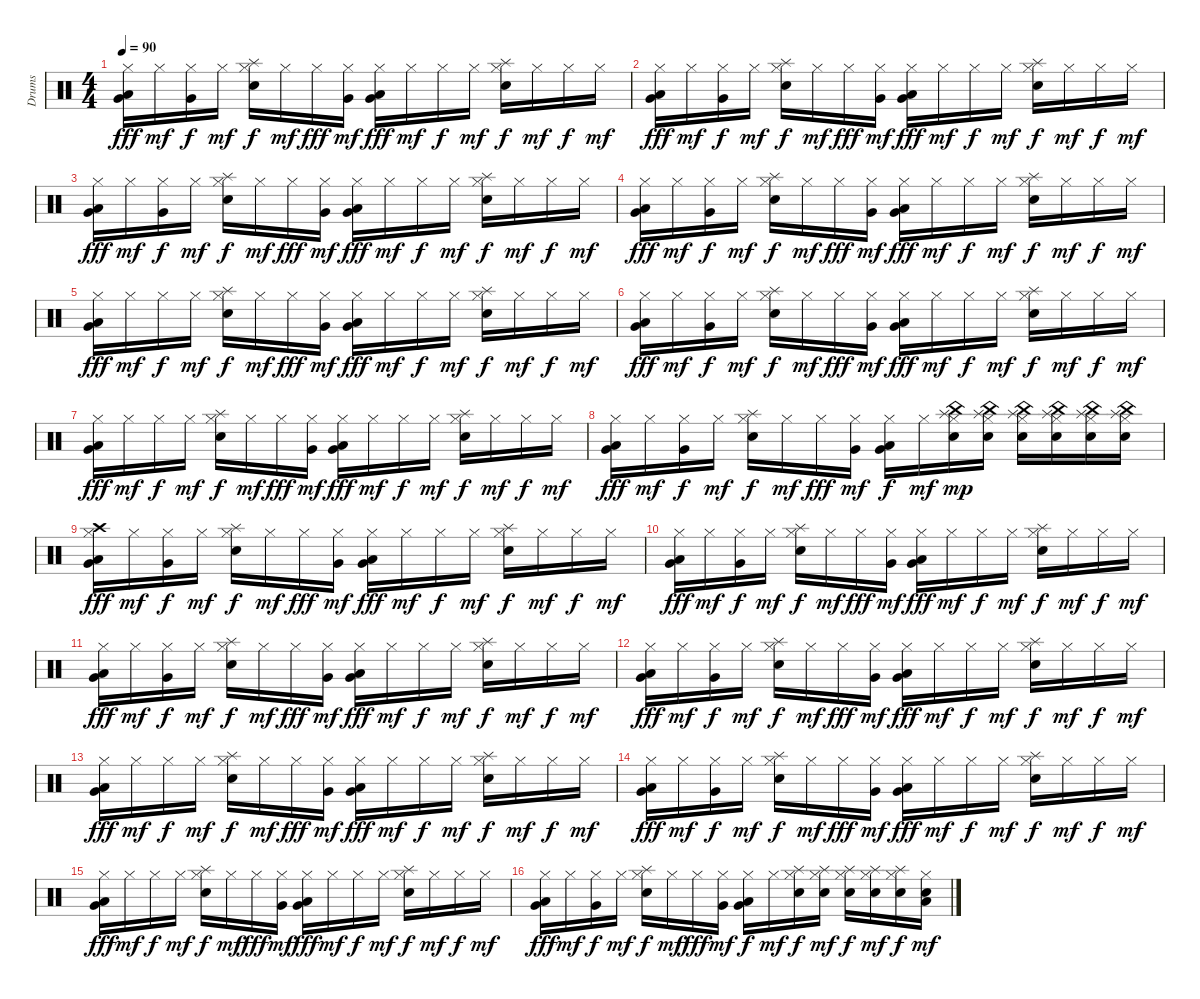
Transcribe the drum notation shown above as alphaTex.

\track ("Drums" "Drums") {instrument percussion}
\staff {score}
\articulation defaults
\ts (4 4)
\tempo 90
\clef neutral
\ks c
("Very Low Tom (hit)" "Low Floor Tom (hit)" "Hi-Hat (closed)").16{dy fff} "Hi-Hat (closed)".16{dy mf} ("Very Low Tom (hit)" "Hi-Hat (closed)").16{dy f} "Hi-Hat (closed)".16{dy mf} ("Electric Snare (hit)" "Splash (hit)" "Hi-Hat (closed)").16{dy f} "Hi-Hat (closed)".16{dy mf} "Hi-Hat (closed)".16{dy fff} ("Very Low Tom (hit)" "Hi-Hat (closed)").16{dy mf} ("Very Low Tom (hit)" "Low Floor Tom (hit)" "Hi-Hat (closed)").16{dy fff} "Hi-Hat (closed)".16{dy mf} "Hi-Hat (closed)".16{dy f} "Hi-Hat (closed)".16{dy mf} ("Electric Snare (hit)" "Splash (hit)" "Hi-Hat (closed)").16{dy f} "Hi-Hat (closed)".16{dy mf} "Hi-Hat (closed)".16{dy f} "Hi-Hat (closed)".16{dy mf} |
("Very Low Tom (hit)" "Low Floor Tom (hit)" "Hi-Hat (closed)").16{dy fff} "Hi-Hat (closed)".16{dy mf} ("Very Low Tom (hit)" "Hi-Hat (closed)").16{dy f} "Hi-Hat (closed)".16{dy mf} ("Electric Snare (hit)" "Splash (hit)" "Hi-Hat (closed)").16{dy f} "Hi-Hat (closed)".16{dy mf} "Hi-Hat (closed)".16{dy fff} ("Very Low Tom (hit)" "Hi-Hat (closed)").16{dy mf} ("Very Low Tom (hit)" "Low Floor Tom (hit)" "Hi-Hat (closed)").16{dy fff} "Hi-Hat (closed)".16{dy mf} "Hi-Hat (closed)".16{dy f} "Hi-Hat (closed)".16{dy mf} ("Electric Snare (hit)" "Splash (hit)" "Hi-Hat (closed)").16{dy f} "Hi-Hat (closed)".16{dy mf} "Hi-Hat (closed)".16{dy f} "Hi-Hat (closed)".16{dy mf} |
("Very Low Tom (hit)" "Low Floor Tom (hit)" "Hi-Hat (closed)").16{dy fff} "Hi-Hat (closed)".16{dy mf} ("Very Low Tom (hit)" "Hi-Hat (closed)").16{dy f} "Hi-Hat (closed)".16{dy mf} ("Electric Snare (hit)" "Splash (hit)" "Hi-Hat (closed)").16{dy f} "Hi-Hat (closed)".16{dy mf} "Hi-Hat (closed)".16{dy fff} ("Very Low Tom (hit)" "Hi-Hat (closed)").16{dy mf} ("Very Low Tom (hit)" "Low Floor Tom (hit)" "Hi-Hat (closed)").16{dy fff} "Hi-Hat (closed)".16{dy mf} "Hi-Hat (closed)".16{dy f} "Hi-Hat (closed)".16{dy mf} ("Electric Snare (hit)" "Splash (hit)" "Hi-Hat (closed)").16{dy f} "Hi-Hat (closed)".16{dy mf} "Hi-Hat (closed)".16{dy f} "Hi-Hat (closed)".16{dy mf} |
("Very Low Tom (hit)" "Low Floor Tom (hit)" "Hi-Hat (closed)").16{dy fff} "Hi-Hat (closed)".16{dy mf} ("Very Low Tom (hit)" "Hi-Hat (closed)").16{dy f} "Hi-Hat (closed)".16{dy mf} ("Electric Snare (hit)" "Splash (hit)" "Hi-Hat (closed)").16{dy f} "Hi-Hat (closed)".16{dy mf} "Hi-Hat (closed)".16{dy fff} ("Very Low Tom (hit)" "Hi-Hat (closed)").16{dy mf} ("Very Low Tom (hit)" "Low Floor Tom (hit)" "Hi-Hat (closed)").16{dy fff} "Hi-Hat (closed)".16{dy mf} "Hi-Hat (closed)".16{dy f} "Hi-Hat (closed)".16{dy mf} ("Electric Snare (hit)" "Splash (hit)" "Hi-Hat (closed)").16{dy f} "Hi-Hat (closed)".16{dy mf} "Hi-Hat (closed)".16{dy f} "Hi-Hat (closed)".16{dy mf} |
("Very Low Tom (hit)" "Low Floor Tom (hit)" "Hi-Hat (closed)").16{dy fff} "Hi-Hat (closed)".16{dy mf} "Hi-Hat (closed)".16{dy f} "Hi-Hat (closed)".16{dy mf} ("Electric Snare (hit)" "Splash (hit)" "Hi-Hat (closed)").16{dy f} "Hi-Hat (closed)".16{dy mf} "Hi-Hat (closed)".16{dy fff} ("Very Low Tom (hit)" "Hi-Hat (closed)").16{dy mf} ("Very Low Tom (hit)" "Low Floor Tom (hit)" "Hi-Hat (closed)").16{dy fff} "Hi-Hat (closed)".16{dy mf} "Hi-Hat (closed)".16{dy f} "Hi-Hat (closed)".16{dy mf} ("Electric Snare (hit)" "Splash (hit)" "Hi-Hat (closed)").16{dy f} "Hi-Hat (closed)".16{dy mf} "Hi-Hat (closed)".16{dy f} "Hi-Hat (closed)".16{dy mf} |
("Very Low Tom (hit)" "Low Floor Tom (hit)" "Hi-Hat (closed)").16{dy fff} "Hi-Hat (closed)".16{dy mf} ("Very Low Tom (hit)" "Hi-Hat (closed)").16{dy f} "Hi-Hat (closed)".16{dy mf} ("Electric Snare (hit)" "Splash (hit)" "Hi-Hat (closed)").16{dy f} "Hi-Hat (closed)".16{dy mf} "Hi-Hat (closed)".16{dy fff} ("Very Low Tom (hit)" "Hi-Hat (closed)").16{dy mf} ("Very Low Tom (hit)" "Low Floor Tom (hit)" "Hi-Hat (closed)").16{dy fff} "Hi-Hat (closed)".16{dy mf} "Hi-Hat (closed)".16{dy f} "Hi-Hat (closed)".16{dy mf} ("Electric Snare (hit)" "Splash (hit)" "Hi-Hat (closed)").16{dy f} "Hi-Hat (closed)".16{dy mf} "Hi-Hat (closed)".16{dy f} "Hi-Hat (closed)".16{dy mf} |
("Very Low Tom (hit)" "Low Floor Tom (hit)" "Hi-Hat (closed)").16{dy fff} "Hi-Hat (closed)".16{dy mf} "Hi-Hat (closed)".16{dy f} "Hi-Hat (closed)".16{dy mf} ("Electric Snare (hit)" "Splash (hit)" "Hi-Hat (closed)").16{dy f} "Hi-Hat (closed)".16{dy mf} "Hi-Hat (closed)".16{dy fff} ("Very Low Tom (hit)" "Hi-Hat (closed)").16{dy mf} ("Very Low Tom (hit)" "Low Floor Tom (hit)" "Hi-Hat (closed)").16{dy fff} "Hi-Hat (closed)".16{dy mf} "Hi-Hat (closed)".16{dy f} "Hi-Hat (closed)".16{dy mf} ("Electric Snare (hit)" "Splash (hit)" "Hi-Hat (closed)").16{dy f} "Hi-Hat (closed)".16{dy mf} "Hi-Hat (closed)".16{dy f} "Hi-Hat (closed)".16{dy mf} |
("Very Low Tom (hit)" "Low Floor Tom (hit)" "Hi-Hat (closed)").16{dy fff} "Hi-Hat (closed)".16{dy mf} ("Very Low Tom (hit)" "Hi-Hat (closed)").16{dy f} "Hi-Hat (closed)".16{dy mf} ("Electric Snare (hit)" "Splash (hit)" "Hi-Hat (closed)").16{dy f} "Hi-Hat (closed)".16{dy mf} "Hi-Hat (closed)".16{dy fff} ("Very Low Tom (hit)" "Hi-Hat (closed)").16{dy mf} ("Very Low Tom (hit)" "Low Floor Tom (hit)" "Hi-Hat (closed)").16{dy f} "Hi-Hat (closed)".16{dy mf} ("China (hit)" "Electric Snare (hit)" "Splash (hit)" "Hi-Hat (closed)").16{dy mp} ("China (hit)" "Electric Snare (hit)" "Splash (hit)" "Hi-Hat (closed)").16 ("China (hit)" "Electric Snare (hit)" "Splash (hit)" "Hi-Hat (closed)").16 ("China (hit)" "Electric Snare (hit)" "Splash (hit)" "Hi-Hat (closed)").16 ("China (hit)" "Electric Snare (hit)" "Splash (hit)" "Hi-Hat (closed)").16 ("China (hit)" "Electric Snare (hit)" "Splash (hit)" "Hi-Hat (closed)").16 |
("Crash high (hit)" "Very Low Tom (hit)" "Low Floor Tom (hit)" "Hi-Hat (closed)").16{dy fff} "Hi-Hat (closed)".16{dy mf} ("Very Low Tom (hit)" "Hi-Hat (closed)").16{dy f} "Hi-Hat (closed)".16{dy mf} ("Electric Snare (hit)" "Splash (hit)" "Hi-Hat (closed)").16{dy f} "Hi-Hat (closed)".16{dy mf} "Hi-Hat (closed)".16{dy fff} ("Very Low Tom (hit)" "Hi-Hat (closed)").16{dy mf} ("Very Low Tom (hit)" "Low Floor Tom (hit)" "Hi-Hat (closed)").16{dy fff} "Hi-Hat (closed)".16{dy mf} "Hi-Hat (closed)".16{dy f} "Hi-Hat (closed)".16{dy mf} ("Electric Snare (hit)" "Splash (hit)" "Hi-Hat (closed)").16{dy f} "Hi-Hat (closed)".16{dy mf} "Hi-Hat (closed)".16{dy f} "Hi-Hat (closed)".16{dy mf} |
("Very Low Tom (hit)" "Low Floor Tom (hit)" "Hi-Hat (closed)").16{dy fff} "Hi-Hat (closed)".16{dy mf} ("Very Low Tom (hit)" "Hi-Hat (closed)").16{dy f} "Hi-Hat (closed)".16{dy mf} ("Electric Snare (hit)" "Splash (hit)" "Hi-Hat (closed)").16{dy f} "Hi-Hat (closed)".16{dy mf} "Hi-Hat (closed)".16{dy fff} ("Very Low Tom (hit)" "Hi-Hat (closed)").16{dy mf} ("Very Low Tom (hit)" "Low Floor Tom (hit)" "Hi-Hat (closed)").16{dy fff} "Hi-Hat (closed)".16{dy mf} "Hi-Hat (closed)".16{dy f} "Hi-Hat (closed)".16{dy mf} ("Electric Snare (hit)" "Splash (hit)" "Hi-Hat (closed)").16{dy f} "Hi-Hat (closed)".16{dy mf} "Hi-Hat (closed)".16{dy f} "Hi-Hat (closed)".16{dy mf} |
("Very Low Tom (hit)" "Low Floor Tom (hit)" "Hi-Hat (closed)").16{dy fff} "Hi-Hat (closed)".16{dy mf} ("Very Low Tom (hit)" "Hi-Hat (closed)").16{dy f} "Hi-Hat (closed)".16{dy mf} ("Electric Snare (hit)" "Splash (hit)" "Hi-Hat (closed)").16{dy f} "Hi-Hat (closed)".16{dy mf} "Hi-Hat (closed)".16{dy fff} ("Very Low Tom (hit)" "Hi-Hat (closed)").16{dy mf} ("Very Low Tom (hit)" "Low Floor Tom (hit)" "Hi-Hat (closed)").16{dy fff} "Hi-Hat (closed)".16{dy mf} "Hi-Hat (closed)".16{dy f} "Hi-Hat (closed)".16{dy mf} ("Electric Snare (hit)" "Splash (hit)" "Hi-Hat (closed)").16{dy f} "Hi-Hat (closed)".16{dy mf} "Hi-Hat (closed)".16{dy f} "Hi-Hat (closed)".16{dy mf} |
("Very Low Tom (hit)" "Low Floor Tom (hit)" "Hi-Hat (closed)").16{dy fff} "Hi-Hat (closed)".16{dy mf} ("Very Low Tom (hit)" "Hi-Hat (closed)").16{dy f} "Hi-Hat (closed)".16{dy mf} ("Electric Snare (hit)" "Splash (hit)" "Hi-Hat (closed)").16{dy f} "Hi-Hat (closed)".16{dy mf} "Hi-Hat (closed)".16{dy fff} ("Very Low Tom (hit)" "Hi-Hat (closed)").16{dy mf} ("Very Low Tom (hit)" "Low Floor Tom (hit)" "Hi-Hat (closed)").16{dy fff} "Hi-Hat (closed)".16{dy mf} "Hi-Hat (closed)".16{dy f} "Hi-Hat (closed)".16{dy mf} ("Electric Snare (hit)" "Splash (hit)" "Hi-Hat (closed)").16{dy f} "Hi-Hat (closed)".16{dy mf} "Hi-Hat (closed)".16{dy f} "Hi-Hat (closed)".16{dy mf} |
("Very Low Tom (hit)" "Low Floor Tom (hit)" "Hi-Hat (closed)").16{dy fff} "Hi-Hat (closed)".16{dy mf} "Hi-Hat (closed)".16{dy f} "Hi-Hat (closed)".16{dy mf} ("Electric Snare (hit)" "Splash (hit)" "Hi-Hat (closed)").16{dy f} "Hi-Hat (closed)".16{dy mf} "Hi-Hat (closed)".16{dy fff} ("Very Low Tom (hit)" "Hi-Hat (closed)").16{dy mf} ("Very Low Tom (hit)" "Low Floor Tom (hit)" "Hi-Hat (closed)").16{dy fff} "Hi-Hat (closed)".16{dy mf} "Hi-Hat (closed)".16{dy f} "Hi-Hat (closed)".16{dy mf} ("Electric Snare (hit)" "Splash (hit)" "Hi-Hat (closed)").16{dy f} "Hi-Hat (closed)".16{dy mf} "Hi-Hat (closed)".16{dy f} "Hi-Hat (closed)".16{dy mf} |
("Very Low Tom (hit)" "Low Floor Tom (hit)" "Hi-Hat (closed)").16{dy fff} "Hi-Hat (closed)".16{dy mf} ("Very Low Tom (hit)" "Hi-Hat (closed)").16{dy f} "Hi-Hat (closed)".16{dy mf} ("Electric Snare (hit)" "Splash (hit)" "Hi-Hat (closed)").16{dy f} "Hi-Hat (closed)".16{dy mf} "Hi-Hat (closed)".16{dy fff} ("Very Low Tom (hit)" "Hi-Hat (closed)").16{dy mf} ("Very Low Tom (hit)" "Low Floor Tom (hit)" "Hi-Hat (closed)").16{dy fff} "Hi-Hat (closed)".16{dy mf} "Hi-Hat (closed)".16{dy f} "Hi-Hat (closed)".16{dy mf} ("Electric Snare (hit)" "Splash (hit)" "Hi-Hat (closed)").16{dy f} "Hi-Hat (closed)".16{dy mf} "Hi-Hat (closed)".16{dy f} "Hi-Hat (closed)".16{dy mf} |
("Very Low Tom (hit)" "Low Floor Tom (hit)" "Hi-Hat (closed)").16{dy fff} "Hi-Hat (closed)".16{dy mf} "Hi-Hat (closed)".16{dy f} "Hi-Hat (closed)".16{dy mf} ("Electric Snare (hit)" "Splash (hit)" "Hi-Hat (closed)").16{dy f} "Hi-Hat (closed)".16{dy mf} "Hi-Hat (closed)".16{dy fff} ("Very Low Tom (hit)" "Hi-Hat (closed)").16{dy mf} ("Very Low Tom (hit)" "Low Floor Tom (hit)" "Hi-Hat (closed)").16{dy fff} "Hi-Hat (closed)".16{dy mf} "Hi-Hat (closed)".16{dy f} "Hi-Hat (closed)".16{dy mf} ("Electric Snare (hit)" "Splash (hit)" "Hi-Hat (closed)").16{dy f} "Hi-Hat (closed)".16{dy mf} "Hi-Hat (closed)".16{dy f} "Hi-Hat (closed)".16{dy mf} |
("Very Low Tom (hit)" "Low Floor Tom (hit)" "Hi-Hat (closed)").16{dy fff} "Hi-Hat (closed)".16{dy mf} ("Very Low Tom (hit)" "Hi-Hat (closed)").16{dy f} "Hi-Hat (closed)".16{dy mf} ("Electric Snare (hit)" "Splash (hit)" "Hi-Hat (closed)").16{dy f} "Hi-Hat (closed)".16{dy mf} "Hi-Hat (closed)".16{dy fff} ("Very Low Tom (hit)" "Hi-Hat (closed)").16{dy mf} ("Very Low Tom (hit)" "Low Floor Tom (hit)" "Hi-Hat (closed)").16{dy f} "Hi-Hat (closed)".16{dy mf} ("Electric Snare (hit)" "Splash (hit)" "Hi-Hat (closed)").16{dy f} ("Electric Snare (hit)" "Splash (hit)" "Hi-Hat (closed)").16{dy mf} ("Electric Snare (hit)" "Splash (hit)" "Hi-Hat (closed)").16{dy f} ("Electric Snare (hit)" "Splash (hit)" "Hi-Hat (closed)").16{dy mf} ("Electric Snare (hit)" "Splash (hit)" "Hi-Hat (closed)").16{dy f} ("Electric Snare (hit)" "Low Tom (hit)" "Hi-Hat (closed)").16{dy mf}
